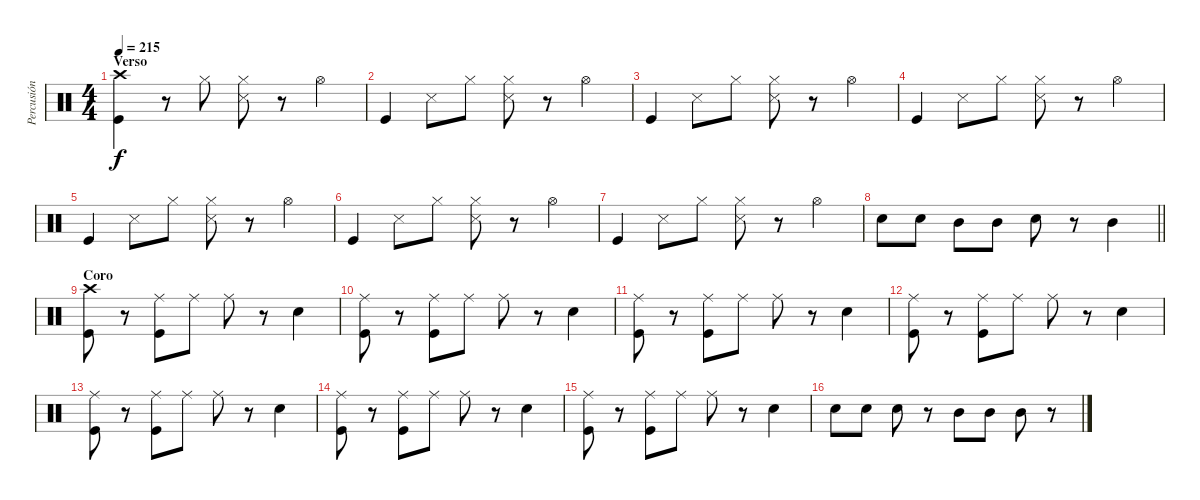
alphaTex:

\track ("Percusión" "Percusión") {instrument percussion}
\staff {score}
\articulation defaults
\ts (4 4)
\section ("" "Verso")
\tempo 215
\clef neutral
\ks c
("Crash high (hit)" "Kick (hit)").4{dy f} r.8 "Hi-Hat (closed)".8 ("Hi-Hat (closed)" "Snare (side stick) 3").8 r.8 "Hi-Hat (open)".4 |
"Kick (hit)".4 "Snare (side stick) 3".8 "Hi-Hat (closed)".8 ("Hi-Hat (closed)" "Snare (side stick) 3").8 r.8 "Hi-Hat (open)".4 |
"Kick (hit)".4 "Snare (side stick) 3".8 "Hi-Hat (closed)".8 ("Hi-Hat (closed)" "Snare (side stick) 3").8 r.8 "Hi-Hat (open)".4 |
"Kick (hit)".4 "Snare (side stick) 3".8 "Hi-Hat (closed)".8 ("Hi-Hat (closed)" "Snare (side stick) 3").8 r.8 "Hi-Hat (open)".4 |
"Kick (hit)".4 "Snare (side stick) 3".8 "Hi-Hat (closed)".8 ("Hi-Hat (closed)" "Snare (side stick) 3").8 r.8 "Hi-Hat (open)".4 |
"Kick (hit)".4 "Snare (side stick) 3".8 "Hi-Hat (closed)".8 ("Hi-Hat (closed)" "Snare (side stick) 3").8 r.8 "Hi-Hat (open)".4 |
"Kick (hit)".4 "Snare (side stick) 3".8 "Hi-Hat (closed)".8 ("Hi-Hat (closed)" "Snare (side stick) 3").8 r.8 "Hi-Hat (open)".4 |
\barLineRight lightlight "Snare (hit) 2".8 "Snare (hit) 2".8 "Mid Tom (hit)".8 "Mid Tom (hit)".8 "Snare (hit) 2".8
r.8 "Mid Tom (hit)".4 |
\section ("" "Coro")
("Crash high (hit)" "Kick (hit)").8 r.8 ("Ride (middle)" "Kick (hit)").8 "Ride (middle)".8 "Ride (middle)".8 r.8 "Snare (hit) 2".4 |
("Ride (middle)" "Kick (hit)").8 r.8 ("Ride (middle)" "Kick (hit)").8 "Ride (middle)".8 "Ride (middle)".8 r.8 "Snare (hit) 2".4 |
("Ride (middle)" "Kick (hit)").8 r.8 ("Ride (middle)" "Kick (hit)").8 "Ride (middle)".8 "Ride (middle)".8 r.8 "Snare (hit) 2".4 |
("Ride (middle)" "Kick (hit)").8 r.8 ("Ride (middle)" "Kick (hit)").8 "Ride (middle)".8 "Ride (middle)".8 r.8 "Snare (hit) 2".4 |
("Ride (middle)" "Kick (hit)").8 r.8 ("Ride (middle)" "Kick (hit)").8 "Ride (middle)".8 "Ride (middle)".8 r.8 "Snare (hit) 2".4 |
("Ride (middle)" "Kick (hit)").8 r.8 ("Ride (middle)" "Kick (hit)").8 "Ride (middle)".8 "Ride (middle)".8 r.8 "Snare (hit) 2".4 |
("Ride (middle)" "Kick (hit)").8 r.8 ("Ride (middle)" "Kick (hit)").8 "Ride (middle)".8 "Ride (middle)".8 r.8 "Snare (hit) 2".4 |
"Snare (hit) 2".8 "Snare (hit) 2".8 "Snare (hit) 2".8 r.8 "Mid Tom (hit)".8 "Mid Tom (hit)".8 "Mid Tom (hit)".8 r.8
